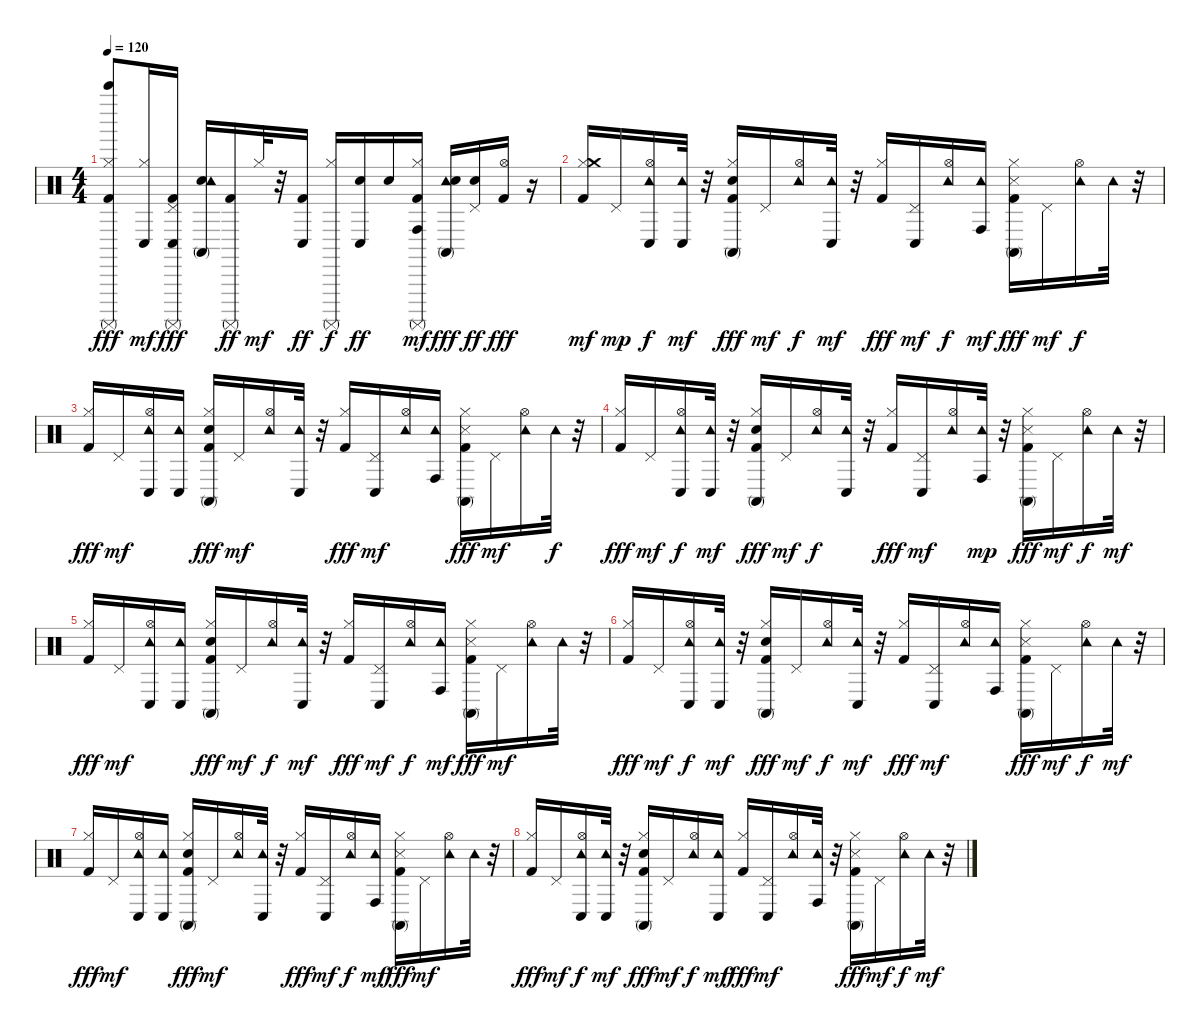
\track "" {instrument percussion}
\staff {score}
\articulation defaults
\ts (4 4)
\tempo 120
\clef neutral
\ks c
("Surdo (mute)" "Hi-Hat (closed)" "Bell Tree (hit)" "Kick (hit) 2").8{dy fff} ("Conga low (hit)" "Hi-Hat (closed)").16{dy mf} ("Conga low (hit)" "Surdo (mute)" "Pedal Hi-Hat (hit)" "Kick (hit) 2").16{dy fff} ("Conga high (mute)" "Snare (hit) 2" "Tambourine (hit)").16 ("Surdo (mute)" "Kick (hit) 2").16{dy ff} "Hi-Hat (closed)".32{dy mf} r.32 ("Conga low (hit)" "Kick (hit) 2").16{dy ff} ("Hi-Hat (closed)" "Surdo (mute)").16{dy f} ("Conga low (hit)" "Snare (hit) 2").16{dy ff} "Snare (hit) 2".16 ("Conga high (hit)" "Surdo (mute)" "Hi-Hat (closed)" "Kick (hit) 2").16{dy mf} ("Conga high (mute)" "Tambourine (hit)" "Snare (hit) 2").16{dy fff} ("Pedal Hi-Hat (hit)" "Snare (hit) 2").16{dy ff} ("Hi-Hat (open)" "Kick (hit) 2").16{dy fff} r.16 |
("Hi-Hat (closed)" "Kick (hit) 2" "Crash medium (hit)").16{dy mf} "Pedal Hi-Hat (hit)".16{dy mp} ("Hi-Hat (open)" "Conga low (hit)" "Tambourine (hit)").16{dy f} ("Conga low (hit)" "Tambourine (hit)").32{dy mf} r.32 ("Conga high (mute)" "Kick (hit) 2" "Hi-Hat (closed)" "Snare (hit) 2").16{dy fff} "Pedal Hi-Hat (hit)".16{dy mf} ("Hi-Hat (open)" "Tambourine (hit)").16{dy f} ("Conga low (hit)" "Tambourine (hit)").32{dy mf} r.32 ("Kick (hit) 2" "Hi-Hat (closed)").16{dy fff} ("Conga low (hit)" "Pedal Hi-Hat (hit)").16{dy mf} ("Hi-Hat (open)" "Tambourine (hit)").16{dy f} ("Conga high (hit)" "Tambourine (hit)").16{dy mf} ("Conga high (mute)" "Kick (hit) 2" "Hi-Hat (closed)" "Snare (side stick) 3").16{dy fff} "Pedal Hi-Hat (hit)".16{dy mf} ("Hi-Hat (open)" "Tambourine (hit)").16{dy f} "Tambourine (hit)".32 r.32 |
("Hi-Hat (closed)" "Kick (hit) 2").16{dy fff} "Pedal Hi-Hat (hit)".16{dy mf} ("Hi-Hat (open)" "Conga low (hit)" "Tambourine (hit)").16 ("Conga low (hit)" "Tambourine (hit)").16 ("Hi-Hat (closed)" "Conga high (mute)" "Kick (hit) 2" "Snare (hit) 2").16{dy fff} "Pedal Hi-Hat (hit)".16{dy mf} ("Hi-Hat (open)" "Tambourine (hit)").16 ("Conga low (hit)" "Tambourine (hit)").32 r.32 ("Hi-Hat (closed)" "Kick (hit) 2").16{dy fff} ("Conga low (hit)" "Pedal Hi-Hat (hit)").16{dy mf} ("Hi-Hat (open)" "Tambourine (hit)").16 ("Conga high (hit)" "Tambourine (hit)").16 ("Hi-Hat (closed)" "Conga high (mute)" "Kick (hit) 2" "Snare (side stick) 3").16{dy fff} "Pedal Hi-Hat (hit)".16{dy mf} ("Hi-Hat (open)" "Tambourine (hit)").16 "Tambourine (hit)".32{dy f} r.32 |
("Hi-Hat (closed)" "Kick (hit) 2").16{dy fff} "Pedal Hi-Hat (hit)".16{dy mf} ("Conga low (hit)" "Hi-Hat (open)" "Tambourine (hit)").16{dy f} ("Conga low (hit)" "Tambourine (hit)").32{dy mf} r.32 ("Conga high (mute)" "Kick (hit) 2" "Hi-Hat (closed)" "Snare (hit) 2").16{dy fff} "Pedal Hi-Hat (hit)".16{dy mf} ("Hi-Hat (open)" "Tambourine (hit)").16{dy f} ("Conga low (hit)" "Tambourine (hit)").32 r.32 ("Hi-Hat (closed)" "Kick (hit) 2").16{dy fff} ("Conga low (hit)" "Pedal Hi-Hat (hit)").16{dy mf} ("Hi-Hat (open)" "Tambourine (hit)").16 ("Conga high (hit)" "Tambourine (hit)").32{dy mp} r.32 ("Hi-Hat (closed)" "Conga high (mute)" "Kick (hit) 2" "Snare (side stick) 3").16{dy fff} "Pedal Hi-Hat (hit)".16{dy mf} ("Hi-Hat (open)" "Tambourine (hit)").16{dy f} "Tambourine (hit)".32{dy mf} r.32 |
("Kick (hit) 2" "Hi-Hat (closed)").16{dy fff} "Pedal Hi-Hat (hit)".16{dy mf} ("Conga low (hit)" "Hi-Hat (open)" "Tambourine (hit)").16 ("Conga low (hit)" "Tambourine (hit)").16 ("Conga high (mute)" "Kick (hit) 2" "Hi-Hat (closed)" "Snare (hit) 2").16{dy fff} "Pedal Hi-Hat (hit)".16{dy mf} ("Hi-Hat (open)" "Tambourine (hit)").16{dy f} ("Conga low (hit)" "Tambourine (hit)").32{dy mf} r.32 ("Hi-Hat (closed)" "Kick (hit) 2").16{dy fff} ("Conga low (hit)" "Pedal Hi-Hat (hit)").16{dy mf} ("Hi-Hat (open)" "Tambourine (hit)").16{dy f} ("Conga high (hit)" "Tambourine (hit)").16{dy mf} ("Conga high (mute)" "Kick (hit) 2" "Hi-Hat (closed)" "Snare (side stick) 3").16{dy fff} "Pedal Hi-Hat (hit)".16{dy mf} ("Hi-Hat (open)" "Tambourine (hit)").16 "Tambourine (hit)".32 r.32 |
("Kick (hit) 2" "Hi-Hat (closed)").16{dy fff} "Pedal Hi-Hat (hit)".16{dy mf} ("Conga low (hit)" "Hi-Hat (open)" "Tambourine (hit)").16{dy f} ("Conga low (hit)" "Tambourine (hit)").32{dy mf} r.32 ("Conga high (mute)" "Kick (hit) 2" "Hi-Hat (closed)" "Snare (hit) 2").16{dy fff} "Pedal Hi-Hat (hit)".16{dy mf} ("Hi-Hat (open)" "Tambourine (hit)").16{dy f} ("Conga low (hit)" "Tambourine (hit)").32{dy mf} r.32 ("Kick (hit) 2" "Hi-Hat (closed)").16{dy fff} ("Conga low (hit)" "Pedal Hi-Hat (hit)").16{dy mf} ("Hi-Hat (open)" "Tambourine (hit)").16 ("Conga high (hit)" "Tambourine (hit)").16 ("Conga high (mute)" "Kick (hit) 2" "Hi-Hat (closed)" "Snare (side stick) 3").16{dy fff} "Pedal Hi-Hat (hit)".16{dy mf} ("Hi-Hat (open)" "Tambourine (hit)").16{dy f} "Tambourine (hit)".32{dy mf} r.32 |
("Kick (hit) 2" "Hi-Hat (closed)").16{dy fff} "Pedal Hi-Hat (hit)".16{dy mf} ("Conga low (hit)" "Hi-Hat (open)" "Tambourine (hit)").16 ("Conga low (hit)" "Tambourine (hit)").16 ("Conga high (mute)" "Kick (hit) 2" "Hi-Hat (closed)" "Snare (hit) 2").16{dy fff} "Pedal Hi-Hat (hit)".16{dy mf} ("Hi-Hat (open)" "Tambourine (hit)").16 ("Conga low (hit)" "Tambourine (hit)").32 r.32 ("Kick (hit) 2" "Hi-Hat (closed)").16{dy fff} ("Conga low (hit)" "Pedal Hi-Hat (hit)").16{dy mf} ("Hi-Hat (open)" "Tambourine (hit)").16{dy f} ("Conga high (hit)" "Tambourine (hit)").16{dy mf} ("Hi-Hat (closed)" "Kick (hit) 2" "Conga high (mute)" "Snare (side stick) 3").16{dy fff} "Pedal Hi-Hat (hit)".16{dy mf} ("Hi-Hat (open)" "Tambourine (hit)").16 "Tambourine (hit)".32 r.32 |
("Hi-Hat (closed)" "Kick (hit) 2").16{dy fff} "Pedal Hi-Hat (hit)".16{dy mf} ("Conga low (hit)" "Hi-Hat (open)" "Tambourine (hit)").16{dy f} ("Conga low (hit)" "Tambourine (hit)").32{dy mf} r.32 ("Conga high (mute)" "Kick (hit) 2" "Hi-Hat (closed)" "Snare (hit) 2").16{dy fff} "Pedal Hi-Hat (hit)".16{dy mf} ("Hi-Hat (open)" "Tambourine (hit)").16{dy f} ("Conga low (hit)" "Tambourine (hit)").16{dy mf} ("Kick (hit) 2" "Hi-Hat (closed)").16{dy fff} ("Conga low (hit)" "Pedal Hi-Hat (hit)").16{dy mf} ("Hi-Hat (open)" "Tambourine (hit)").16 ("Conga high (hit)" "Tambourine (hit)").32 r.32 ("Hi-Hat (closed)" "Conga high (mute)" "Kick (hit) 2" "Snare (side stick) 3").16{dy fff} "Pedal Hi-Hat (hit)".16{dy mf} ("Hi-Hat (open)" "Tambourine (hit)").16{dy f} "Tambourine (hit)".32{dy mf} r.32
